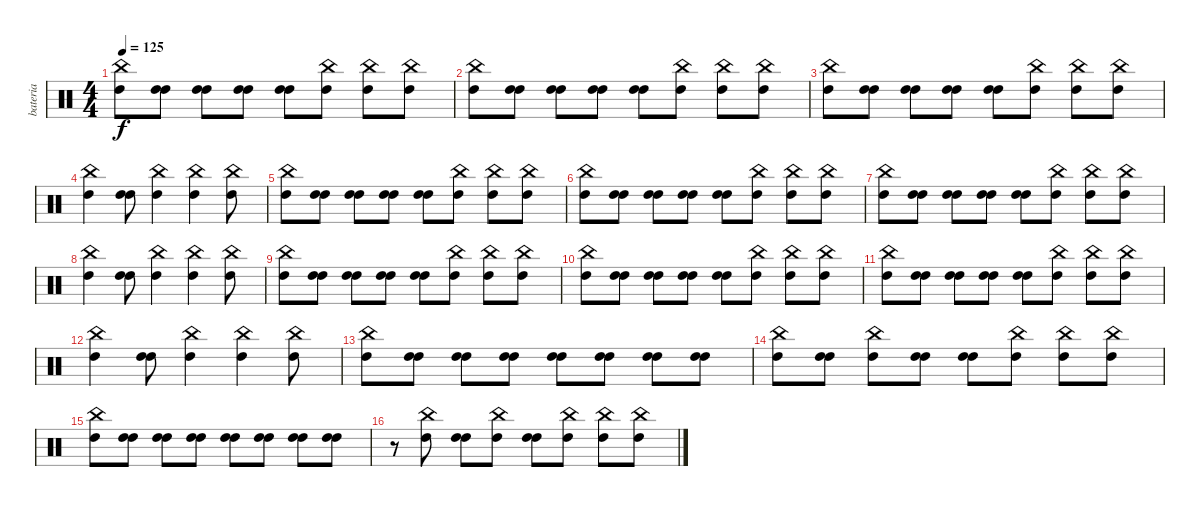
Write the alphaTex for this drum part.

\track ("bateria" "bateria") {instrument percussion}
\staff {score}
\articulation defaults
\ts (4 4)
\tempo 125
\clef neutral
\ks c
("China (hit)" "High Tom (hit)").8{dy f} ("High Tom (hit)" "High Tom (hit)").8 ("High Tom (hit)" "High Tom (hit)").8 ("High Tom (hit)" "High Tom (hit)").8 ("High Tom (hit)" "High Tom (hit)").8 ("China (hit)" "High Tom (hit)").8 ("China (hit)" "High Tom (hit)").8 ("China (hit)" "High Tom (hit)").8 |
("China (hit)" "High Tom (hit)").8 ("High Tom (hit)" "High Tom (hit)").8 ("High Tom (hit)" "High Tom (hit)").8 ("High Tom (hit)" "High Tom (hit)").8 ("High Tom (hit)" "High Tom (hit)").8 ("China (hit)" "High Tom (hit)").8 ("China (hit)" "High Tom (hit)").8 ("China (hit)" "High Tom (hit)").8 |
("China (hit)" "High Tom (hit)").8 ("High Tom (hit)" "High Tom (hit)").8 ("High Tom (hit)" "High Tom (hit)").8 ("High Tom (hit)" "High Tom (hit)").8 ("High Tom (hit)" "High Tom (hit)").8 ("China (hit)" "High Tom (hit)").8 ("China (hit)" "High Tom (hit)").8 ("China (hit)" "High Tom (hit)").8 |
("China (hit)" "High Tom (hit)").4 ("High Tom (hit)" "High Tom (hit)").8 ("China (hit)" "High Tom (hit)").4 ("China (hit)" "High Tom (hit)").4 ("China (hit)" "High Tom (hit)").8 |
("China (hit)" "High Tom (hit)").8 ("High Tom (hit)" "High Tom (hit)").8 ("High Tom (hit)" "High Tom (hit)").8 ("High Tom (hit)" "High Tom (hit)").8 ("High Tom (hit)" "High Tom (hit)").8 ("China (hit)" "High Tom (hit)").8 ("China (hit)" "High Tom (hit)").8 ("China (hit)" "High Tom (hit)").8 |
("China (hit)" "High Tom (hit)").8 ("High Tom (hit)" "High Tom (hit)").8 ("High Tom (hit)" "High Tom (hit)").8 ("High Tom (hit)" "High Tom (hit)").8 ("High Tom (hit)" "High Tom (hit)").8 ("China (hit)" "High Tom (hit)").8 ("China (hit)" "High Tom (hit)").8 ("China (hit)" "High Tom (hit)").8 |
("China (hit)" "High Tom (hit)").8 ("High Tom (hit)" "High Tom (hit)").8 ("High Tom (hit)" "High Tom (hit)").8 ("High Tom (hit)" "High Tom (hit)").8 ("High Tom (hit)" "High Tom (hit)").8 ("China (hit)" "High Tom (hit)").8 ("China (hit)" "High Tom (hit)").8 ("China (hit)" "High Tom (hit)").8 |
("China (hit)" "High Tom (hit)").4 ("High Tom (hit)" "High Tom (hit)").8 ("China (hit)" "High Tom (hit)").4 ("China (hit)" "High Tom (hit)").4 ("China (hit)" "High Tom (hit)").8 |
("China (hit)" "High Tom (hit)").8 ("High Tom (hit)" "High Tom (hit)").8 ("High Tom (hit)" "High Tom (hit)").8 ("High Tom (hit)" "High Tom (hit)").8 ("High Tom (hit)" "High Tom (hit)").8 ("China (hit)" "High Tom (hit)").8 ("China (hit)" "High Tom (hit)").8 ("China (hit)" "High Tom (hit)").8 |
("China (hit)" "High Tom (hit)").8 ("High Tom (hit)" "High Tom (hit)").8 ("High Tom (hit)" "High Tom (hit)").8 ("High Tom (hit)" "High Tom (hit)").8 ("High Tom (hit)" "High Tom (hit)").8 ("China (hit)" "High Tom (hit)").8 ("China (hit)" "High Tom (hit)").8 ("China (hit)" "High Tom (hit)").8 |
("China (hit)" "High Tom (hit)").8 ("High Tom (hit)" "High Tom (hit)").8 ("High Tom (hit)" "High Tom (hit)").8 ("High Tom (hit)" "High Tom (hit)").8 ("High Tom (hit)" "High Tom (hit)").8 ("China (hit)" "High Tom (hit)").8 ("China (hit)" "High Tom (hit)").8 ("China (hit)" "High Tom (hit)").8 |
("China (hit)" "High Tom (hit)").4 ("High Tom (hit)" "High Tom (hit)").8 ("China (hit)" "High Tom (hit)").4 ("China (hit)" "High Tom (hit)").4 ("China (hit)" "High Tom (hit)").8 |
("China (hit)" "High Tom (hit)").8 ("High Tom (hit)" "High Tom (hit)").8 ("High Tom (hit)" "High Tom (hit)").8 ("High Tom (hit)" "High Tom (hit)").8 ("High Tom (hit)" "High Tom (hit)").8 ("High Tom (hit)" "High Tom (hit)").8 ("High Tom (hit)" "High Tom (hit)").8 ("High Tom (hit)" "High Tom (hit)").8 |
("China (hit)" "High Tom (hit)").8 ("High Tom (hit)" "High Tom (hit)").8 ("China (hit)" "High Tom (hit)").8 ("High Tom (hit)" "High Tom (hit)").8 ("High Tom (hit)" "High Tom (hit)").8 ("China (hit)" "High Tom (hit)").8 ("China (hit)" "High Tom (hit)").8 ("China (hit)" "High Tom (hit)").8 |
("China (hit)" "High Tom (hit)").8 ("High Tom (hit)" "High Tom (hit)").8 ("High Tom (hit)" "High Tom (hit)").8 ("High Tom (hit)" "High Tom (hit)").8 ("High Tom (hit)" "High Tom (hit)").8 ("High Tom (hit)" "High Tom (hit)").8 ("High Tom (hit)" "High Tom (hit)").8 ("High Tom (hit)" "High Tom (hit)").8 |
r.8 ("China (hit)" "High Tom (hit)").8 ("High Tom (hit)" "High Tom (hit)").8 ("China (hit)" "High Tom (hit)").8 ("High Tom (hit)" "High Tom (hit)").8 ("China (hit)" "High Tom (hit)").8 ("China (hit)" "High Tom (hit)").8 ("China (hit)" "High Tom (hit)").8
